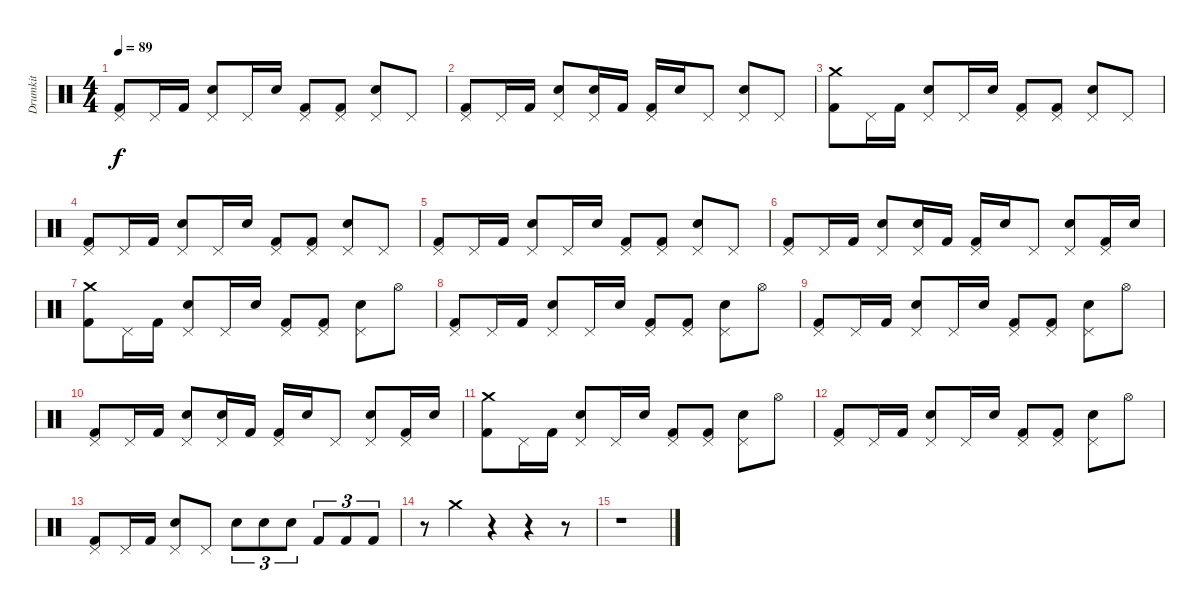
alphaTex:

\track ("Drumkit" "Drumkit") {instrument percussion}
\staff {score}
\articulation defaults
\ts (4 4)
\tempo 89
\clef neutral
\ks c
("Pedal Hi-Hat (hit)" "Kick (hit) 2").8{dy f} "Pedal Hi-Hat (hit)".16 "Kick (hit) 2".16 ("Pedal Hi-Hat (hit)" "Snare (hit) 2").8 "Pedal Hi-Hat (hit)".16 "Snare (hit) 2".16 ("Pedal Hi-Hat (hit)" "Kick (hit) 2").8 ("Pedal Hi-Hat (hit)" "Kick (hit) 2").8 ("Pedal Hi-Hat (hit)" "Snare (hit) 2").8 "Pedal Hi-Hat (hit)".8 |
("Pedal Hi-Hat (hit)" "Kick (hit) 2").8 "Pedal Hi-Hat (hit)".16 "Kick (hit) 2".16 ("Pedal Hi-Hat (hit)" "Snare (hit) 2").8 ("Pedal Hi-Hat (hit)" "Snare (hit) 2").16 "Kick (hit) 2".16 ("Pedal Hi-Hat (hit)" "Kick (hit) 2").16 "Snare (hit) 2".16 "Pedal Hi-Hat (hit)".8 ("Pedal Hi-Hat (hit)" "Snare (hit) 2").8 "Pedal Hi-Hat (hit)".8 |
("Crash medium (hit)" "Kick (hit) 2").8 "Pedal Hi-Hat (hit)".16 "Kick (hit) 2".16 ("Pedal Hi-Hat (hit)" "Snare (hit) 2").8 "Pedal Hi-Hat (hit)".16 "Snare (hit) 2".16 ("Pedal Hi-Hat (hit)" "Kick (hit) 2").8 ("Pedal Hi-Hat (hit)" "Kick (hit) 2").8 ("Pedal Hi-Hat (hit)" "Snare (hit) 2").8 "Pedal Hi-Hat (hit)".8 |
("Pedal Hi-Hat (hit)" "Kick (hit) 2").8 "Pedal Hi-Hat (hit)".16 "Kick (hit) 2".16 ("Pedal Hi-Hat (hit)" "Snare (hit) 2").8 "Pedal Hi-Hat (hit)".16 "Snare (hit) 2".16 ("Pedal Hi-Hat (hit)" "Kick (hit) 2").8 ("Pedal Hi-Hat (hit)" "Kick (hit) 2").8 ("Pedal Hi-Hat (hit)" "Snare (hit) 2").8 "Pedal Hi-Hat (hit)".8 |
("Pedal Hi-Hat (hit)" "Kick (hit) 2").8 "Pedal Hi-Hat (hit)".16 "Kick (hit) 2".16 ("Pedal Hi-Hat (hit)" "Snare (hit) 2").8 "Pedal Hi-Hat (hit)".16 "Snare (hit) 2".16 ("Pedal Hi-Hat (hit)" "Kick (hit) 2").8 ("Pedal Hi-Hat (hit)" "Kick (hit) 2").8 ("Pedal Hi-Hat (hit)" "Snare (hit) 2").8 "Pedal Hi-Hat (hit)".8 |
("Pedal Hi-Hat (hit)" "Kick (hit) 2").8 "Pedal Hi-Hat (hit)".16 "Kick (hit) 2".16 ("Pedal Hi-Hat (hit)" "Snare (hit) 2").8 ("Pedal Hi-Hat (hit)" "Snare (hit) 2").16 "Kick (hit) 2".16 ("Pedal Hi-Hat (hit)" "Kick (hit) 2").16 "Snare (hit) 2".16 "Pedal Hi-Hat (hit)".8 ("Pedal Hi-Hat (hit)" "Snare (hit) 2").8 ("Pedal Hi-Hat (hit)" "Kick (hit) 2").16 "Snare (hit) 2".16 |
("Crash medium (hit)" "Kick (hit) 2").8 "Pedal Hi-Hat (hit)".16 "Kick (hit) 2".16 ("Pedal Hi-Hat (hit)" "Snare (hit) 2").8 "Pedal Hi-Hat (hit)".16 "Snare (hit) 2".16 ("Pedal Hi-Hat (hit)" "Kick (hit) 2").8 ("Pedal Hi-Hat (hit)" "Kick (hit) 2").8 ("Pedal Hi-Hat (hit)" "Snare (hit) 2").8 "Hi-Hat (open)".8 |
("Pedal Hi-Hat (hit)" "Kick (hit) 2").8 "Pedal Hi-Hat (hit)".16 "Kick (hit) 2".16 ("Pedal Hi-Hat (hit)" "Snare (hit) 2").8 "Pedal Hi-Hat (hit)".16 "Snare (hit) 2".16 ("Pedal Hi-Hat (hit)" "Kick (hit) 2").8 ("Pedal Hi-Hat (hit)" "Kick (hit) 2").8 ("Pedal Hi-Hat (hit)" "Snare (hit) 2").8 "Hi-Hat (open)".8 |
("Pedal Hi-Hat (hit)" "Kick (hit) 2").8 "Pedal Hi-Hat (hit)".16 "Kick (hit) 2".16 ("Pedal Hi-Hat (hit)" "Snare (hit) 2").8 "Pedal Hi-Hat (hit)".16 "Snare (hit) 2".16 ("Pedal Hi-Hat (hit)" "Kick (hit) 2").8 ("Pedal Hi-Hat (hit)" "Kick (hit) 2").8 ("Pedal Hi-Hat (hit)" "Snare (hit) 2").8 "Hi-Hat (open)".8 |
("Pedal Hi-Hat (hit)" "Kick (hit) 2").8 "Pedal Hi-Hat (hit)".16 "Kick (hit) 2".16 ("Pedal Hi-Hat (hit)" "Snare (hit) 2").8 ("Pedal Hi-Hat (hit)" "Snare (hit) 2").16 "Kick (hit) 2".16 ("Pedal Hi-Hat (hit)" "Kick (hit) 2").16 "Snare (hit) 2".16 "Pedal Hi-Hat (hit)".8 ("Pedal Hi-Hat (hit)" "Snare (hit) 2").8 ("Pedal Hi-Hat (hit)" "Kick (hit) 2").16 "Snare (hit) 2".16 |
("Crash medium (hit)" "Kick (hit) 2").8 "Pedal Hi-Hat (hit)".16 "Kick (hit) 2".16 ("Pedal Hi-Hat (hit)" "Snare (hit) 2").8 "Pedal Hi-Hat (hit)".16 "Snare (hit) 2".16 ("Pedal Hi-Hat (hit)" "Kick (hit) 2").8 ("Pedal Hi-Hat (hit)" "Kick (hit) 2").8 ("Pedal Hi-Hat (hit)" "Snare (hit) 2").8 "Hi-Hat (open)".8 |
("Pedal Hi-Hat (hit)" "Kick (hit) 2").8 "Pedal Hi-Hat (hit)".16 "Kick (hit) 2".16 ("Pedal Hi-Hat (hit)" "Snare (hit) 2").8 "Pedal Hi-Hat (hit)".16 "Snare (hit) 2".16 ("Pedal Hi-Hat (hit)" "Kick (hit) 2").8 ("Pedal Hi-Hat (hit)" "Kick (hit) 2").8 ("Pedal Hi-Hat (hit)" "Snare (hit) 2").8 "Hi-Hat (open)".8 |
("Pedal Hi-Hat (hit)" "Kick (hit) 2").8 "Pedal Hi-Hat (hit)".16 "Kick (hit) 2".16 ("Pedal Hi-Hat (hit)" "Snare (hit) 2").8 "Pedal Hi-Hat (hit)".8 "Snare (hit) 2".8{tu (3 2)} "Snare (hit) 2".8{tu (3 2)} "Snare (hit) 2".8{tu (3 2)} "Kick (hit) 2".8{tu (3 2)} "Kick (hit) 2".8{tu (3 2)} "Kick (hit) 2".8{tu (3 2)} |
r.8 "Crash medium (hit)".4 r.4 r.4 r.8 |
r.1
